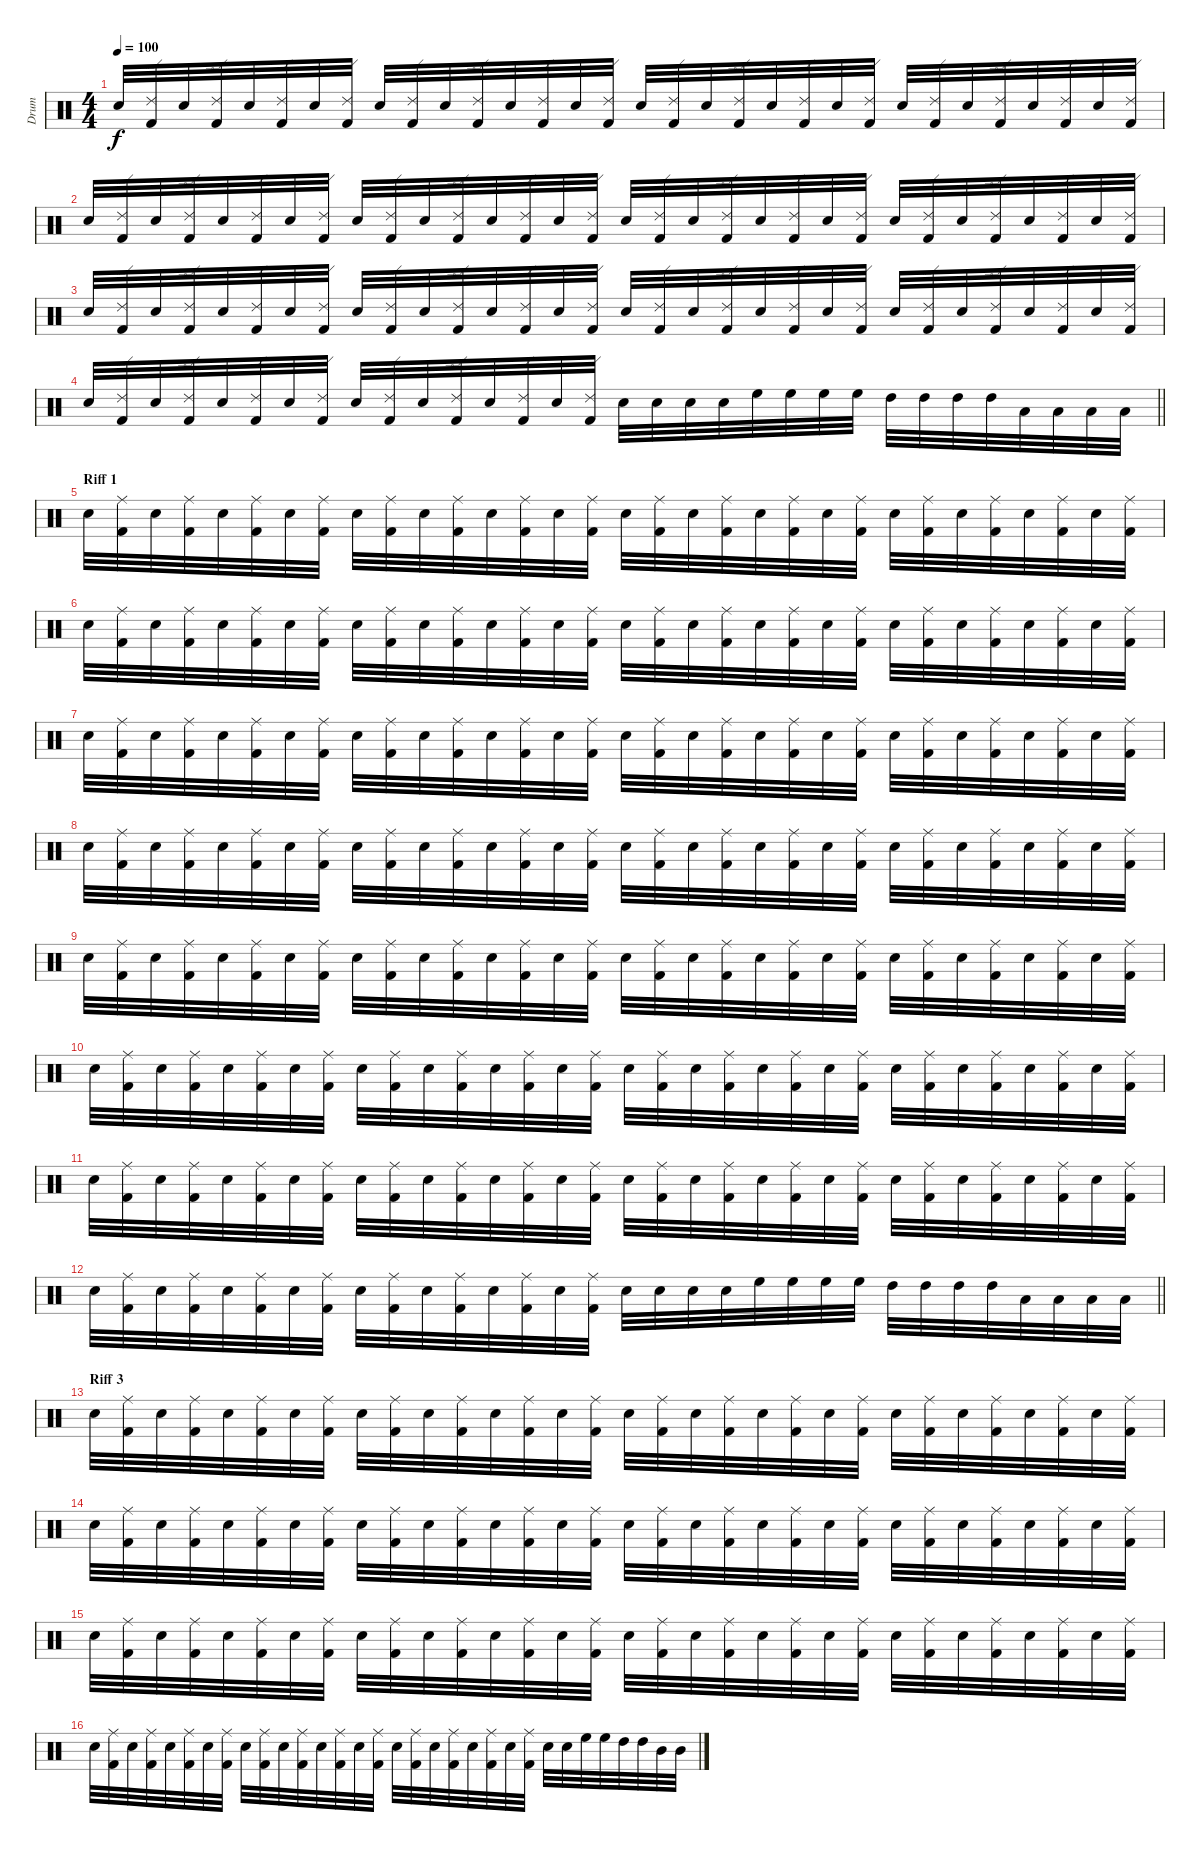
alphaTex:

\track ("Drum" "Drum") {instrument percussion}
\staff {score}
\articulation defaults
\ts (4 4)
\tempo 100
\clef neutral
\ks c "Electric Snare (hit)".32{dy f}
("Ride (edge) 2" "Kick (hit) 2").32 "Electric Snare (hit)".32 ("Ride (edge) 2" "Kick (hit) 2").32 "Electric Snare (hit)".32 ("Ride (edge) 2" "Kick (hit) 2").32 "Electric Snare (hit)".32 ("Ride (edge) 2" "Kick (hit) 2").32 "Electric Snare (hit)".32 ("Ride (edge) 2" "Kick (hit) 2").32 "Electric Snare (hit)".32 ("Ride (edge) 2" "Kick (hit) 2").32 "Electric Snare (hit)".32 ("Ride (edge) 2" "Kick (hit) 2").32 "Electric Snare (hit)".32 ("Ride (edge) 2" "Kick (hit) 2").32 "Electric Snare (hit)".32 ("Ride (edge) 2" "Kick (hit) 2").32 "Electric Snare (hit)".32 ("Ride (edge) 2" "Kick (hit) 2").32 "Electric Snare (hit)".32 ("Ride (edge) 2" "Kick (hit) 2").32 "Electric Snare (hit)".32 ("Ride (edge) 2" "Kick (hit) 2").32 "Electric Snare (hit)".32 ("Ride (edge) 2" "Kick (hit) 2").32 "Electric Snare (hit)".32 ("Ride (edge) 2" "Kick (hit) 2").32 "Electric Snare (hit)".32 ("Ride (edge) 2" "Kick (hit) 2").32 "Electric Snare (hit)".32 ("Ride (edge) 2" "Kick (hit) 2").32 |
"Electric Snare (hit)".32 ("Ride (edge) 2" "Kick (hit) 2").32 "Electric Snare (hit)".32 ("Ride (edge) 2" "Kick (hit) 2").32 "Electric Snare (hit)".32 ("Ride (edge) 2" "Kick (hit) 2").32 "Electric Snare (hit)".32 ("Ride (edge) 2" "Kick (hit) 2").32 "Electric Snare (hit)".32 ("Ride (edge) 2" "Kick (hit) 2").32 "Electric Snare (hit)".32 ("Ride (edge) 2" "Kick (hit) 2").32 "Electric Snare (hit)".32 ("Ride (edge) 2" "Kick (hit) 2").32 "Electric Snare (hit)".32 ("Ride (edge) 2" "Kick (hit) 2").32 "Electric Snare (hit)".32 ("Ride (edge) 2" "Kick (hit) 2").32 "Electric Snare (hit)".32 ("Ride (edge) 2" "Kick (hit) 2").32 "Electric Snare (hit)".32 ("Ride (edge) 2" "Kick (hit) 2").32 "Electric Snare (hit)".32 ("Ride (edge) 2" "Kick (hit) 2").32 "Electric Snare (hit)".32 ("Ride (edge) 2" "Kick (hit) 2").32 "Electric Snare (hit)".32 ("Ride (edge) 2" "Kick (hit) 2").32 "Electric Snare (hit)".32 ("Ride (edge) 2" "Kick (hit) 2").32 "Electric Snare (hit)".32 ("Ride (edge) 2" "Kick (hit) 2").32 |
"Electric Snare (hit)".32 ("Ride (edge) 2" "Kick (hit) 2").32 "Electric Snare (hit)".32 ("Ride (edge) 2" "Kick (hit) 2").32 "Electric Snare (hit)".32 ("Ride (edge) 2" "Kick (hit) 2").32 "Electric Snare (hit)".32 ("Ride (edge) 2" "Kick (hit) 2").32 "Electric Snare (hit)".32 ("Ride (edge) 2" "Kick (hit) 2").32 "Electric Snare (hit)".32 ("Ride (edge) 2" "Kick (hit) 2").32 "Electric Snare (hit)".32 ("Ride (edge) 2" "Kick (hit) 2").32 "Electric Snare (hit)".32 ("Ride (edge) 2" "Kick (hit) 2").32 "Electric Snare (hit)".32 ("Ride (edge) 2" "Kick (hit) 2").32 "Electric Snare (hit)".32 ("Ride (edge) 2" "Kick (hit) 2").32 "Electric Snare (hit)".32 ("Ride (edge) 2" "Kick (hit) 2").32 "Electric Snare (hit)".32 ("Ride (edge) 2" "Kick (hit) 2").32 "Electric Snare (hit)".32 ("Ride (edge) 2" "Kick (hit) 2").32 "Electric Snare (hit)".32 ("Ride (edge) 2" "Kick (hit) 2").32 "Electric Snare (hit)".32 ("Ride (edge) 2" "Kick (hit) 2").32 "Electric Snare (hit)".32 ("Ride (edge) 2" "Kick (hit) 2").32 |
\barLineRight lightlight "Electric Snare (hit)".32
("Ride (edge) 2" "Kick (hit) 2").32 "Electric Snare (hit)".32 ("Ride (edge) 2" "Kick (hit) 2").32 "Electric Snare (hit)".32 ("Ride (edge) 2" "Kick (hit) 2").32 "Electric Snare (hit)".32 ("Ride (edge) 2" "Kick (hit) 2").32 "Electric Snare (hit)".32 ("Ride (edge) 2" "Kick (hit) 2").32 "Electric Snare (hit)".32 ("Ride (edge) 2" "Kick (hit) 2").32 "Electric Snare (hit)".32 ("Ride (edge) 2" "Kick (hit) 2").32 "Electric Snare (hit)".32 ("Ride (edge) 2" "Kick (hit) 2").32 "Electric Snare (hit)".32 "Electric Snare (hit)".32 "Electric Snare (hit)".32 "Electric Snare (hit)".32 "High Floor Tom (hit)".32 "High Floor Tom (hit)".32 "High Floor Tom (hit)".32 "High Floor Tom (hit)".32 "High Tom (hit)".32 "High Tom (hit)".32 "High Tom (hit)".32 "High Tom (hit)".32 "Low Tom (hit)".32 "Low Tom (hit)".32 "Low Tom (hit)".32 "Low Tom (hit)".32 |
\section ("" "Riff 1")
"Electric Snare (hit)".32 ("Ride (middle)" "Kick (hit) 2").32 "Electric Snare (hit)".32 ("Ride (middle)" "Kick (hit) 2").32 "Electric Snare (hit)".32 ("Ride (middle)" "Kick (hit) 2").32 "Electric Snare (hit)".32 ("Ride (middle)" "Kick (hit) 2").32 "Electric Snare (hit)".32 ("Ride (middle)" "Kick (hit) 2").32 "Electric Snare (hit)".32 ("Ride (middle)" "Kick (hit) 2").32 "Electric Snare (hit)".32 ("Ride (middle)" "Kick (hit) 2").32 "Electric Snare (hit)".32 ("Ride (middle)" "Kick (hit) 2").32 "Electric Snare (hit)".32 ("Ride (middle)" "Kick (hit) 2").32 "Electric Snare (hit)".32 ("Ride (middle)" "Kick (hit) 2").32 "Electric Snare (hit)".32 ("Ride (middle)" "Kick (hit) 2").32 "Electric Snare (hit)".32 ("Ride (middle)" "Kick (hit) 2").32 "Electric Snare (hit)".32 ("Ride (middle)" "Kick (hit) 2").32 "Electric Snare (hit)".32 ("Ride (middle)" "Kick (hit) 2").32 "Electric Snare (hit)".32 ("Ride (middle)" "Kick (hit) 2").32 "Electric Snare (hit)".32 ("Ride (middle)" "Kick (hit) 2").32 |
"Electric Snare (hit)".32 ("Ride (middle)" "Kick (hit) 2").32 "Electric Snare (hit)".32 ("Ride (middle)" "Kick (hit) 2").32 "Electric Snare (hit)".32 ("Ride (middle)" "Kick (hit) 2").32 "Electric Snare (hit)".32 ("Ride (middle)" "Kick (hit) 2").32 "Electric Snare (hit)".32 ("Ride (middle)" "Kick (hit) 2").32 "Electric Snare (hit)".32 ("Ride (middle)" "Kick (hit) 2").32 "Electric Snare (hit)".32 ("Ride (middle)" "Kick (hit) 2").32 "Electric Snare (hit)".32 ("Ride (middle)" "Kick (hit) 2").32 "Electric Snare (hit)".32 ("Ride (middle)" "Kick (hit) 2").32 "Electric Snare (hit)".32 ("Ride (middle)" "Kick (hit) 2").32 "Electric Snare (hit)".32 ("Ride (middle)" "Kick (hit) 2").32 "Electric Snare (hit)".32 ("Ride (middle)" "Kick (hit) 2").32 "Electric Snare (hit)".32 ("Ride (middle)" "Kick (hit) 2").32 "Electric Snare (hit)".32 ("Ride (middle)" "Kick (hit) 2").32 "Electric Snare (hit)".32 ("Ride (middle)" "Kick (hit) 2").32 "Electric Snare (hit)".32 ("Ride (middle)" "Kick (hit) 2").32 |
"Electric Snare (hit)".32 ("Ride (middle)" "Kick (hit) 2").32 "Electric Snare (hit)".32 ("Ride (middle)" "Kick (hit) 2").32 "Electric Snare (hit)".32 ("Ride (middle)" "Kick (hit) 2").32 "Electric Snare (hit)".32 ("Ride (middle)" "Kick (hit) 2").32 "Electric Snare (hit)".32 ("Ride (middle)" "Kick (hit) 2").32 "Electric Snare (hit)".32 ("Ride (middle)" "Kick (hit) 2").32 "Electric Snare (hit)".32 ("Ride (middle)" "Kick (hit) 2").32 "Electric Snare (hit)".32 ("Ride (middle)" "Kick (hit) 2").32 "Electric Snare (hit)".32 ("Ride (middle)" "Kick (hit) 2").32 "Electric Snare (hit)".32 ("Ride (middle)" "Kick (hit) 2").32 "Electric Snare (hit)".32 ("Ride (middle)" "Kick (hit) 2").32 "Electric Snare (hit)".32 ("Ride (middle)" "Kick (hit) 2").32 "Electric Snare (hit)".32 ("Ride (middle)" "Kick (hit) 2").32 "Electric Snare (hit)".32 ("Ride (middle)" "Kick (hit) 2").32 "Electric Snare (hit)".32 ("Ride (middle)" "Kick (hit) 2").32 "Electric Snare (hit)".32 ("Ride (middle)" "Kick (hit) 2").32 |
"Electric Snare (hit)".32 ("Ride (middle)" "Kick (hit) 2").32 "Electric Snare (hit)".32 ("Ride (middle)" "Kick (hit) 2").32 "Electric Snare (hit)".32 ("Ride (middle)" "Kick (hit) 2").32 "Electric Snare (hit)".32 ("Ride (middle)" "Kick (hit) 2").32 "Electric Snare (hit)".32 ("Ride (middle)" "Kick (hit) 2").32 "Electric Snare (hit)".32 ("Ride (middle)" "Kick (hit) 2").32 "Electric Snare (hit)".32 ("Ride (middle)" "Kick (hit) 2").32 "Electric Snare (hit)".32 ("Ride (middle)" "Kick (hit) 2").32 "Electric Snare (hit)".32 ("Ride (middle)" "Kick (hit) 2").32 "Electric Snare (hit)".32 ("Ride (middle)" "Kick (hit) 2").32 "Electric Snare (hit)".32 ("Ride (middle)" "Kick (hit) 2").32 "Electric Snare (hit)".32 ("Ride (middle)" "Kick (hit) 2").32 "Electric Snare (hit)".32 ("Ride (middle)" "Kick (hit) 2").32 "Electric Snare (hit)".32 ("Ride (middle)" "Kick (hit) 2").32 "Electric Snare (hit)".32 ("Ride (middle)" "Kick (hit) 2").32 "Electric Snare (hit)".32 ("Ride (middle)" "Kick (hit) 2").32 |
"Electric Snare (hit)".32 ("Ride (middle)" "Kick (hit) 2").32 "Electric Snare (hit)".32 ("Ride (middle)" "Kick (hit) 2").32 "Electric Snare (hit)".32 ("Ride (middle)" "Kick (hit) 2").32 "Electric Snare (hit)".32 ("Ride (middle)" "Kick (hit) 2").32 "Electric Snare (hit)".32 ("Ride (middle)" "Kick (hit) 2").32 "Electric Snare (hit)".32 ("Ride (middle)" "Kick (hit) 2").32 "Electric Snare (hit)".32 ("Ride (middle)" "Kick (hit) 2").32 "Electric Snare (hit)".32 ("Ride (middle)" "Kick (hit) 2").32 "Electric Snare (hit)".32 ("Ride (middle)" "Kick (hit) 2").32 "Electric Snare (hit)".32 ("Ride (middle)" "Kick (hit) 2").32 "Electric Snare (hit)".32 ("Ride (middle)" "Kick (hit) 2").32 "Electric Snare (hit)".32 ("Ride (middle)" "Kick (hit) 2").32 "Electric Snare (hit)".32 ("Ride (middle)" "Kick (hit) 2").32 "Electric Snare (hit)".32 ("Ride (middle)" "Kick (hit) 2").32 "Electric Snare (hit)".32 ("Ride (middle)" "Kick (hit) 2").32 "Electric Snare (hit)".32 ("Ride (middle)" "Kick (hit) 2").32 |
"Electric Snare (hit)".32 ("Ride (middle)" "Kick (hit) 2").32 "Electric Snare (hit)".32 ("Ride (middle)" "Kick (hit) 2").32 "Electric Snare (hit)".32 ("Ride (middle)" "Kick (hit) 2").32 "Electric Snare (hit)".32 ("Ride (middle)" "Kick (hit) 2").32 "Electric Snare (hit)".32 ("Ride (middle)" "Kick (hit) 2").32 "Electric Snare (hit)".32 ("Ride (middle)" "Kick (hit) 2").32 "Electric Snare (hit)".32 ("Ride (middle)" "Kick (hit) 2").32 "Electric Snare (hit)".32 ("Ride (middle)" "Kick (hit) 2").32 "Electric Snare (hit)".32 ("Ride (middle)" "Kick (hit) 2").32 "Electric Snare (hit)".32 ("Ride (middle)" "Kick (hit) 2").32 "Electric Snare (hit)".32 ("Ride (middle)" "Kick (hit) 2").32 "Electric Snare (hit)".32 ("Ride (middle)" "Kick (hit) 2").32 "Electric Snare (hit)".32 ("Ride (middle)" "Kick (hit) 2").32 "Electric Snare (hit)".32 ("Ride (middle)" "Kick (hit) 2").32 "Electric Snare (hit)".32 ("Ride (middle)" "Kick (hit) 2").32 "Electric Snare (hit)".32 ("Ride (middle)" "Kick (hit) 2").32 |
"Electric Snare (hit)".32 ("Ride (middle)" "Kick (hit) 2").32 "Electric Snare (hit)".32 ("Ride (middle)" "Kick (hit) 2").32 "Electric Snare (hit)".32 ("Ride (middle)" "Kick (hit) 2").32 "Electric Snare (hit)".32 ("Ride (middle)" "Kick (hit) 2").32 "Electric Snare (hit)".32 ("Ride (middle)" "Kick (hit) 2").32 "Electric Snare (hit)".32 ("Ride (middle)" "Kick (hit) 2").32 "Electric Snare (hit)".32 ("Ride (middle)" "Kick (hit) 2").32 "Electric Snare (hit)".32 ("Ride (middle)" "Kick (hit) 2").32 "Electric Snare (hit)".32 ("Ride (middle)" "Kick (hit) 2").32 "Electric Snare (hit)".32 ("Ride (middle)" "Kick (hit) 2").32 "Electric Snare (hit)".32 ("Ride (middle)" "Kick (hit) 2").32 "Electric Snare (hit)".32 ("Ride (middle)" "Kick (hit) 2").32 "Electric Snare (hit)".32 ("Ride (middle)" "Kick (hit) 2").32 "Electric Snare (hit)".32 ("Ride (middle)" "Kick (hit) 2").32 "Electric Snare (hit)".32 ("Ride (middle)" "Kick (hit) 2").32 "Electric Snare (hit)".32 ("Ride (middle)" "Kick (hit) 2").32 |
\barLineRight lightlight "Electric Snare (hit)".32
("Ride (middle)" "Kick (hit) 2").32 "Electric Snare (hit)".32 ("Ride (middle)" "Kick (hit) 2").32 "Electric Snare (hit)".32 ("Ride (middle)" "Kick (hit) 2").32 "Electric Snare (hit)".32 ("Ride (middle)" "Kick (hit) 2").32 "Electric Snare (hit)".32 ("Ride (middle)" "Kick (hit) 2").32 "Electric Snare (hit)".32 ("Ride (middle)" "Kick (hit) 2").32 "Electric Snare (hit)".32 ("Ride (middle)" "Kick (hit) 2").32 "Electric Snare (hit)".32 ("Ride (middle)" "Kick (hit) 2").32 "Electric Snare (hit)".32 "Electric Snare (hit)".32 "Electric Snare (hit)".32 "Electric Snare (hit)".32 "High Floor Tom (hit)".32 "High Floor Tom (hit)".32 "High Floor Tom (hit)".32 "High Floor Tom (hit)".32 "High Tom (hit)".32 "High Tom (hit)".32 "High Tom (hit)".32 "High Tom (hit)".32 "Low Tom (hit)".32 "Low Tom (hit)".32 "Low Tom (hit)".32 "Low Tom (hit)".32 |
\section ("" "Riff 3")
"Electric Snare (hit)".32 ("Ride (middle)" "Kick (hit) 2").32 "Electric Snare (hit)".32 ("Ride (middle)" "Kick (hit) 2").32 "Electric Snare (hit)".32 ("Ride (middle)" "Kick (hit) 2").32 "Electric Snare (hit)".32 ("Ride (middle)" "Kick (hit) 2").32 "Electric Snare (hit)".32 ("Ride (middle)" "Kick (hit) 2").32 "Electric Snare (hit)".32 ("Ride (middle)" "Kick (hit) 2").32 "Electric Snare (hit)".32 ("Ride (middle)" "Kick (hit) 2").32 "Electric Snare (hit)".32 ("Ride (middle)" "Kick (hit) 2").32 "Electric Snare (hit)".32 ("Ride (middle)" "Kick (hit) 2").32 "Electric Snare (hit)".32 ("Ride (middle)" "Kick (hit) 2").32 "Electric Snare (hit)".32 ("Ride (middle)" "Kick (hit) 2").32 "Electric Snare (hit)".32 ("Ride (middle)" "Kick (hit) 2").32 "Electric Snare (hit)".32 ("Ride (middle)" "Kick (hit) 2").32 "Electric Snare (hit)".32 ("Ride (middle)" "Kick (hit) 2").32 "Electric Snare (hit)".32 ("Ride (middle)" "Kick (hit) 2").32 "Electric Snare (hit)".32 ("Ride (middle)" "Kick (hit) 2").32 |
"Electric Snare (hit)".32 ("Ride (middle)" "Kick (hit) 2").32 "Electric Snare (hit)".32 ("Ride (middle)" "Kick (hit) 2").32 "Electric Snare (hit)".32 ("Ride (middle)" "Kick (hit) 2").32 "Electric Snare (hit)".32 ("Ride (middle)" "Kick (hit) 2").32 "Electric Snare (hit)".32 ("Ride (middle)" "Kick (hit) 2").32 "Electric Snare (hit)".32 ("Ride (middle)" "Kick (hit) 2").32 "Electric Snare (hit)".32 ("Ride (middle)" "Kick (hit) 2").32 "Electric Snare (hit)".32 ("Ride (middle)" "Kick (hit) 2").32 "Electric Snare (hit)".32 ("Ride (middle)" "Kick (hit) 2").32 "Electric Snare (hit)".32 ("Ride (middle)" "Kick (hit) 2").32 "Electric Snare (hit)".32 ("Ride (middle)" "Kick (hit) 2").32 "Electric Snare (hit)".32 ("Ride (middle)" "Kick (hit) 2").32 "Electric Snare (hit)".32 ("Ride (middle)" "Kick (hit) 2").32 "Electric Snare (hit)".32 ("Ride (middle)" "Kick (hit) 2").32 "Electric Snare (hit)".32 ("Ride (middle)" "Kick (hit) 2").32 "Electric Snare (hit)".32 ("Ride (middle)" "Kick (hit) 2").32 |
"Electric Snare (hit)".32 ("Ride (middle)" "Kick (hit) 2").32 "Electric Snare (hit)".32 ("Ride (middle)" "Kick (hit) 2").32 "Electric Snare (hit)".32 ("Ride (middle)" "Kick (hit) 2").32 "Electric Snare (hit)".32 ("Ride (middle)" "Kick (hit) 2").32 "Electric Snare (hit)".32 ("Ride (middle)" "Kick (hit) 2").32 "Electric Snare (hit)".32 ("Ride (middle)" "Kick (hit) 2").32 "Electric Snare (hit)".32 ("Ride (middle)" "Kick (hit) 2").32 "Electric Snare (hit)".32 ("Ride (middle)" "Kick (hit) 2").32 "Electric Snare (hit)".32 ("Ride (middle)" "Kick (hit) 2").32 "Electric Snare (hit)".32 ("Ride (middle)" "Kick (hit) 2").32 "Electric Snare (hit)".32 ("Ride (middle)" "Kick (hit) 2").32 "Electric Snare (hit)".32 ("Ride (middle)" "Kick (hit) 2").32 "Electric Snare (hit)".32 ("Ride (middle)" "Kick (hit) 2").32 "Electric Snare (hit)".32 ("Ride (middle)" "Kick (hit) 2").32 "Electric Snare (hit)".32 ("Ride (middle)" "Kick (hit) 2").32 "Electric Snare (hit)".32 ("Ride (middle)" "Kick (hit) 2").32 |
"Electric Snare (hit)".32 ("Ride (middle)" "Kick (hit) 2").32 "Electric Snare (hit)".32 ("Ride (middle)" "Kick (hit) 2").32 "Electric Snare (hit)".32 ("Ride (middle)" "Kick (hit) 2").32 "Electric Snare (hit)".32 ("Ride (middle)" "Kick (hit) 2").32 "Electric Snare (hit)".32 ("Ride (middle)" "Kick (hit) 2").32 "Electric Snare (hit)".32 ("Ride (middle)" "Kick (hit) 2").32 "Electric Snare (hit)".32 ("Ride (middle)" "Kick (hit) 2").32 "Electric Snare (hit)".32 ("Ride (middle)" "Kick (hit) 2").32 "Electric Snare (hit)".32 ("Ride (middle)" "Kick (hit) 2").32 "Electric Snare (hit)".32 ("Ride (middle)" "Kick (hit) 2").32 "Electric Snare (hit)".32 ("Ride (middle)" "Kick (hit) 2").32 "Electric Snare (hit)".32 ("Ride (middle)" "Kick (hit) 2").32 "Electric Snare (hit)".32 "Electric Snare (hit)".32 "High Floor Tom (hit)".32 "High Floor Tom (hit)".32 "High Tom (hit)".32 "High Tom (hit)".32 "Mid Tom (hit)".32 "Mid Tom (hit)".32
